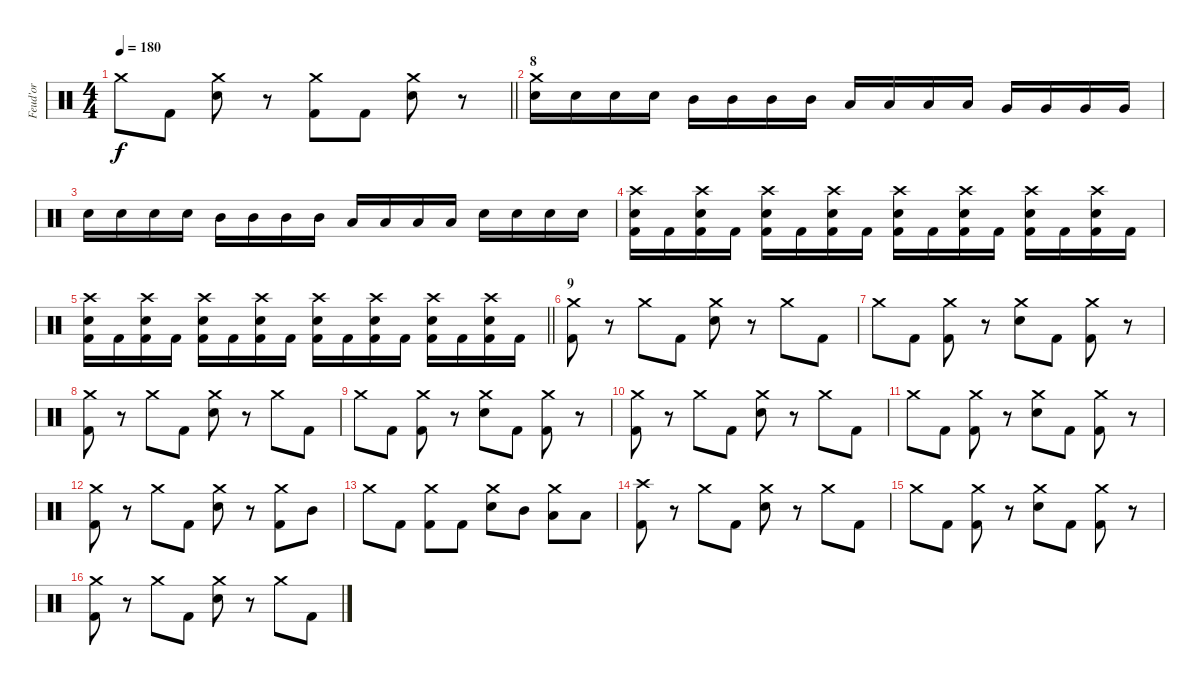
\track ("Feud'or" "Feud'or") {instrument percussion}
\staff {score}
\articulation defaults
\ts (4 4)
\tempo 180
\clef neutral
\barLineRight lightlight
\ks c "Crash medium (hit)".8{dy f} "Kick (hit) 2".8
("Crash medium (hit)" "Snare (hit) 2").8 r.8 ("Crash medium (hit)" "Kick (hit) 2").8 "Kick (hit) 2".8 ("Crash medium (hit)" "Snare (hit) 2").8 r.8 |
\section ("" "8")
("Crash medium (hit)" "Snare (hit) 2").16 "Snare (hit) 2".16 "Snare (hit) 2".16 "Snare (hit) 2".16 "Mid Tom (hit)".16 "Mid Tom (hit)".16 "Mid Tom (hit)".16 "Mid Tom (hit)".16 "Low Tom (hit)".16 "Low Tom (hit)".16 "Low Tom (hit)".16 "Low Tom (hit)".16 "Very Low Tom (hit)".16 "Very Low Tom (hit)".16 "Very Low Tom (hit)".16 "Very Low Tom (hit)".16 |
"Snare (hit) 2".16 "Snare (hit) 2".16 "Snare (hit) 2".16 "Snare (hit) 2".16 "Mid Tom (hit)".16 "Mid Tom (hit)".16 "Mid Tom (hit)".16 "Mid Tom (hit)".16 "Low Tom (hit)".16 "Low Tom (hit)".16 "Low Tom (hit)".16 "Low Tom (hit)".16 "Snare (hit) 2".16 "Snare (hit) 2".16 "Snare (hit) 2".16 "Snare (hit) 2".16 |
("Crash high (hit)" "Snare (hit) 2" "Kick (hit) 2").16 "Kick (hit) 2".16 ("Crash high (hit)" "Snare (hit) 2" "Kick (hit) 2").16 "Kick (hit) 2".16 ("Crash high (hit)" "Snare (hit) 2" "Kick (hit) 2").16 "Kick (hit) 2".16 ("Crash high (hit)" "Snare (hit) 2" "Kick (hit) 2").16 "Kick (hit) 2".16 ("Crash high (hit)" "Snare (hit) 2" "Kick (hit) 2").16 "Kick (hit) 2".16 ("Crash high (hit)" "Snare (hit) 2" "Kick (hit) 2").16 "Kick (hit) 2".16 ("Crash high (hit)" "Snare (hit) 2" "Kick (hit) 2").16 "Kick (hit) 2".16 ("Crash high (hit)" "Snare (hit) 2" "Kick (hit) 2").16 "Kick (hit) 2".16 |
\barLineRight lightlight
("Crash high (hit)" "Snare (hit) 2" "Kick (hit) 2").16 "Kick (hit) 2".16 ("Crash high (hit)" "Snare (hit) 2" "Kick (hit) 2").16 "Kick (hit) 2".16 ("Crash high (hit)" "Snare (hit) 2" "Kick (hit) 2").16 "Kick (hit) 2".16 ("Crash high (hit)" "Snare (hit) 2" "Kick (hit) 2").16 "Kick (hit) 2".16 ("Crash high (hit)" "Snare (hit) 2" "Kick (hit) 2").16 "Kick (hit) 2".16 ("Crash high (hit)" "Snare (hit) 2" "Kick (hit) 2").16 "Kick (hit) 2".16 ("Crash high (hit)" "Snare (hit) 2" "Kick (hit) 2").16 "Kick (hit) 2".16 ("Crash high (hit)" "Snare (hit) 2" "Kick (hit) 2").16 "Kick (hit) 2".16 |
\section ("" "9")
("Crash medium (hit)" "Kick (hit) 2").8 r.8 "Crash medium (hit)".8 "Kick (hit) 2".8 ("Crash medium (hit)" "Snare (hit) 2").8 r.8 "Crash medium (hit)".8 "Kick (hit) 2".8 |
"Crash medium (hit)".8 "Kick (hit) 2".8 ("Crash medium (hit)" "Kick (hit) 2").8 r.8 ("Crash medium (hit)" "Snare (hit) 2").8 "Kick (hit) 2".8 ("Crash medium (hit)" "Kick (hit) 2").8 r.8 |
("Crash medium (hit)" "Kick (hit) 2").8 r.8 "Crash medium (hit)".8 "Kick (hit) 2".8 ("Crash medium (hit)" "Snare (hit) 2").8 r.8 "Crash medium (hit)".8 "Kick (hit) 2".8 |
"Crash medium (hit)".8 "Kick (hit) 2".8 ("Crash medium (hit)" "Kick (hit) 2").8 r.8 ("Crash medium (hit)" "Snare (hit) 2").8 "Kick (hit) 2".8 ("Crash medium (hit)" "Kick (hit) 2").8 r.8 |
("Crash medium (hit)" "Kick (hit) 2").8 r.8 "Crash medium (hit)".8 "Kick (hit) 2".8 ("Crash medium (hit)" "Snare (hit) 2").8 r.8 "Crash medium (hit)".8 "Kick (hit) 2".8 |
"Crash medium (hit)".8 "Kick (hit) 2".8 ("Crash medium (hit)" "Kick (hit) 2").8 r.8 ("Crash medium (hit)" "Snare (hit) 2").8 "Kick (hit) 2".8 ("Crash medium (hit)" "Kick (hit) 2").8 r.8 |
("Crash medium (hit)" "Kick (hit) 2").8 r.8 "Crash medium (hit)".8 "Kick (hit) 2".8 ("Crash medium (hit)" "Snare (hit) 2").8 r.8 ("Crash medium (hit)" "Kick (hit) 2").8 "Mid Tom (hit)".8 |
"Crash medium (hit)".8 "Kick (hit) 2".8 ("Crash medium (hit)" "Kick (hit) 2").8 "Kick (hit) 2".8 ("Crash medium (hit)" "Snare (hit) 2").8 "Mid Tom (hit)".8 ("Crash medium (hit)" "Low Tom (hit)").8 "Low Tom (hit)".8 |
("Crash high (hit)" "Kick (hit) 2").8 r.8 "Crash medium (hit)".8 "Kick (hit) 2".8 ("Crash medium (hit)" "Snare (hit) 2").8 r.8 "Crash medium (hit)".8 "Kick (hit) 2".8 |
"Crash medium (hit)".8 "Kick (hit) 2".8 ("Crash medium (hit)" "Kick (hit) 2").8 r.8 ("Crash medium (hit)" "Snare (hit) 2").8 "Kick (hit) 2".8 ("Crash medium (hit)" "Kick (hit) 2").8 r.8 |
("Crash medium (hit)" "Kick (hit) 2").8 r.8 "Crash medium (hit)".8 "Kick (hit) 2".8 ("Crash medium (hit)" "Snare (hit) 2").8 r.8 "Crash medium (hit)".8 "Kick (hit) 2".8
